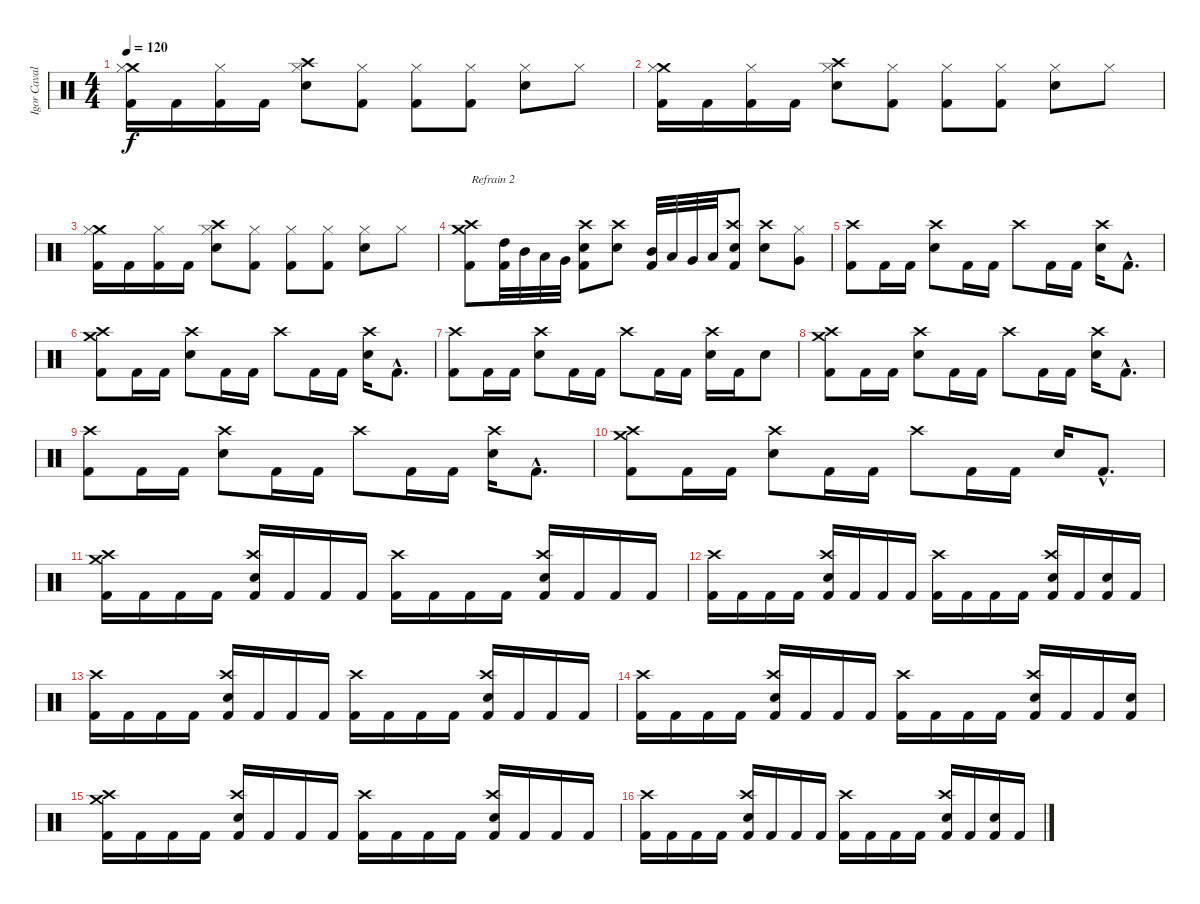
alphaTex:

\track ("Igor Cavalera" "Igor Caval") {instrument percussion}
\staff {score}
\articulation defaults
\ts (4 4)
\tempo 120
\clef neutral
\ks c
("Crash medium (hit)" "Hi-Hat (closed)" "Kick (hit) 2").16{dy f} "Kick (hit) 2".16 ("Hi-Hat (closed)" "Kick (hit) 2").16 "Kick (hit) 2".16 ("Crash high (hit)" "Electric Snare (hit)" "Hi-Hat (closed)").8 ("Hi-Hat (closed)" "Kick (hit) 2").8 ("Hi-Hat (closed)" "Kick (hit) 2").8 ("Hi-Hat (closed)" "Kick (hit) 2").8 ("Electric Snare (hit)" "Hi-Hat (closed)").8 "Hi-Hat (closed)".8 |
("Crash medium (hit)" "Hi-Hat (closed)" "Kick (hit) 2").16 "Kick (hit) 2".16 ("Hi-Hat (closed)" "Kick (hit) 2").16 "Kick (hit) 2".16 ("Crash high (hit)" "Electric Snare (hit)" "Hi-Hat (closed)").8 ("Hi-Hat (closed)" "Kick (hit) 2").8 ("Hi-Hat (closed)" "Kick (hit) 2").8 ("Hi-Hat (closed)" "Kick (hit) 2").8 ("Electric Snare (hit)" "Hi-Hat (closed)").8 "Hi-Hat (closed)".8 |
("Crash medium (hit)" "Hi-Hat (closed)" "Kick (hit) 2").16 "Kick (hit) 2".16 ("Hi-Hat (closed)" "Kick (hit) 2").16 "Kick (hit) 2".16 ("Crash high (hit)" "Electric Snare (hit)" "Hi-Hat (closed)").8 ("Hi-Hat (closed)" "Kick (hit) 2").8 ("Hi-Hat (closed)" "Kick (hit) 2").8 ("Hi-Hat (closed)" "Kick (hit) 2").8 ("Electric Snare (hit)" "Hi-Hat (closed)").8 "Hi-Hat (closed)".8 |
("Crash medium (hit)" "Crash high (hit)" "Kick (hit) 2").8{txt "Refrain 2"} ("High Tom (hit)" "Kick (hit) 2").32 "Mid Tom (hit)".32 "Low Tom (hit)".32 "Very Low Tom (hit)".32 ("Crash high (hit)" "Electric Snare (hit)" "Kick (hit) 2").8 ("Crash high (hit)" "Electric Snare (hit)").8 ("Mid Tom (hit)" "Kick (hit) 2").32 "Low Tom (hit)".32 "Very Low Tom (hit)".32 "Low Floor Tom (hit)".32 ("Crash high (hit)" "Electric Snare (hit)" "Kick (hit) 2").8 ("Crash high (hit)" "Electric Snare (hit)").8 ("Very Low Tom (hit)" "Hi-Hat (closed)").8 |
("Crash high (hit)" "Kick (hit) 2").8 "Kick (hit) 2".16 "Kick (hit) 2".16 ("Crash high (hit)" "Electric Snare (hit)").8 "Kick (hit) 2".16 "Kick (hit) 2".16 "Crash high (hit)".8 "Kick (hit) 2".16 "Kick (hit) 2".16 ("Crash high (hit)" "Electric Snare (hit)").16 "Kick (hit) 2"{hac}.8{d} |
("Crash medium (hit)" "Crash high (hit)" "Kick (hit) 2").8 "Kick (hit) 2".16 "Kick (hit) 2".16 ("Crash high (hit)" "Electric Snare (hit)").8 "Kick (hit) 2".16 "Kick (hit) 2".16 "Crash high (hit)".8 "Kick (hit) 2".16 "Kick (hit) 2".16 ("Crash high (hit)" "Electric Snare (hit)").16 "Kick (hit) 2"{hac}.8{d} |
("Crash high (hit)" "Kick (hit) 2").8 "Kick (hit) 2".16 "Kick (hit) 2".16 ("Crash high (hit)" "Electric Snare (hit)").8 "Kick (hit) 2".16 "Kick (hit) 2".16 "Crash high (hit)".8 "Kick (hit) 2".16 "Kick (hit) 2".16 ("Crash high (hit)" "Electric Snare (hit)").16 "Kick (hit) 2".16 "Electric Snare (hit)".8 |
("Crash medium (hit)" "Crash high (hit)" "Kick (hit) 2").8 "Kick (hit) 2".16 "Kick (hit) 2".16 ("Crash high (hit)" "Electric Snare (hit)").8 "Kick (hit) 2".16 "Kick (hit) 2".16 "Crash high (hit)".8 "Kick (hit) 2".16 "Kick (hit) 2".16 ("Crash high (hit)" "Electric Snare (hit)").16 "Kick (hit) 2"{hac}.8{d} |
("Crash high (hit)" "Kick (hit) 2").8 "Kick (hit) 2".16 "Kick (hit) 2".16 ("Crash high (hit)" "Electric Snare (hit)").8 "Kick (hit) 2".16 "Kick (hit) 2".16 "Crash high (hit)".8 "Kick (hit) 2".16 "Kick (hit) 2".16 ("Crash high (hit)" "Electric Snare (hit)").16 "Kick (hit) 2"{hac}.8{d} |
("Crash medium (hit)" "Crash high (hit)" "Kick (hit) 2").8 "Kick (hit) 2".16 "Kick (hit) 2".16 ("Crash high (hit)" "Electric Snare (hit)").8 "Kick (hit) 2".16 "Kick (hit) 2".16 "Crash high (hit)".8 "Kick (hit) 2".16 "Kick (hit) 2".16 "Electric Snare (hit)".16 "Kick (hit) 2"{hac}.8{d} |
("Crash medium (hit)" "Crash high (hit)" "Kick (hit) 2").16 "Kick (hit) 2".16 "Kick (hit) 2".16 "Kick (hit) 2".16 ("Crash high (hit)" "Electric Snare (hit)" "Kick (hit) 2").16 "Kick (hit) 2".16 "Kick (hit) 2".16 "Kick (hit) 2".16 ("Crash high (hit)" "Kick (hit) 2").16 "Kick (hit) 2".16 "Kick (hit) 2".16 "Kick (hit) 2".16 ("Crash high (hit)" "Electric Snare (hit)" "Kick (hit) 2").16 "Kick (hit) 2".16 "Kick (hit) 2".16 "Kick (hit) 2".16 |
("Crash high (hit)" "Kick (hit) 2").16 "Kick (hit) 2".16 "Kick (hit) 2".16 "Kick (hit) 2".16 ("Crash high (hit)" "Electric Snare (hit)" "Kick (hit) 2").16 "Kick (hit) 2".16 "Kick (hit) 2".16 "Kick (hit) 2".16 ("Crash high (hit)" "Kick (hit) 2").16 "Kick (hit) 2".16 "Kick (hit) 2".16 "Kick (hit) 2".16 ("Crash high (hit)" "Electric Snare (hit)" "Kick (hit) 2").16 "Kick (hit) 2".16 ("Electric Snare (hit)" "Kick (hit) 2").16 "Kick (hit) 2".16 |
("Crash high (hit)" "Kick (hit) 2").16 "Kick (hit) 2".16 "Kick (hit) 2".16 "Kick (hit) 2".16 ("Crash high (hit)" "Electric Snare (hit)" "Kick (hit) 2").16 "Kick (hit) 2".16 "Kick (hit) 2".16 "Kick (hit) 2".16 ("Crash high (hit)" "Kick (hit) 2").16 "Kick (hit) 2".16 "Kick (hit) 2".16 "Kick (hit) 2".16 ("Crash high (hit)" "Electric Snare (hit)" "Kick (hit) 2").16 "Kick (hit) 2".16 "Kick (hit) 2".16 "Kick (hit) 2".16 |
("Crash high (hit)" "Kick (hit) 2").16 "Kick (hit) 2".16 "Kick (hit) 2".16 "Kick (hit) 2".16 ("Crash high (hit)" "Electric Snare (hit)" "Kick (hit) 2").16 "Kick (hit) 2".16 "Kick (hit) 2".16 "Kick (hit) 2".16 ("Crash high (hit)" "Kick (hit) 2").16 "Kick (hit) 2".16 "Kick (hit) 2".16 "Kick (hit) 2".16 ("Crash high (hit)" "Electric Snare (hit)" "Kick (hit) 2").16 "Kick (hit) 2".16 "Kick (hit) 2".16 ("Electric Snare (hit)" "Kick (hit) 2").16 |
("Crash medium (hit)" "Crash high (hit)" "Kick (hit) 2").16 "Kick (hit) 2".16 "Kick (hit) 2".16 "Kick (hit) 2".16 ("Crash high (hit)" "Electric Snare (hit)" "Kick (hit) 2").16 "Kick (hit) 2".16 "Kick (hit) 2".16 "Kick (hit) 2".16 ("Crash high (hit)" "Kick (hit) 2").16 "Kick (hit) 2".16 "Kick (hit) 2".16 "Kick (hit) 2".16 ("Crash high (hit)" "Electric Snare (hit)" "Kick (hit) 2").16 "Kick (hit) 2".16 "Kick (hit) 2".16 "Kick (hit) 2".16 |
("Crash high (hit)" "Kick (hit) 2").16 "Kick (hit) 2".16 "Kick (hit) 2".16 "Kick (hit) 2".16 ("Crash high (hit)" "Electric Snare (hit)" "Kick (hit) 2").16 "Kick (hit) 2".16 "Kick (hit) 2".16 "Kick (hit) 2".16 ("Crash high (hit)" "Kick (hit) 2").16 "Kick (hit) 2".16 "Kick (hit) 2".16 "Kick (hit) 2".16 ("Crash high (hit)" "Electric Snare (hit)" "Kick (hit) 2").16 "Kick (hit) 2".16 ("Electric Snare (hit)" "Kick (hit) 2").16 "Kick (hit) 2".16
